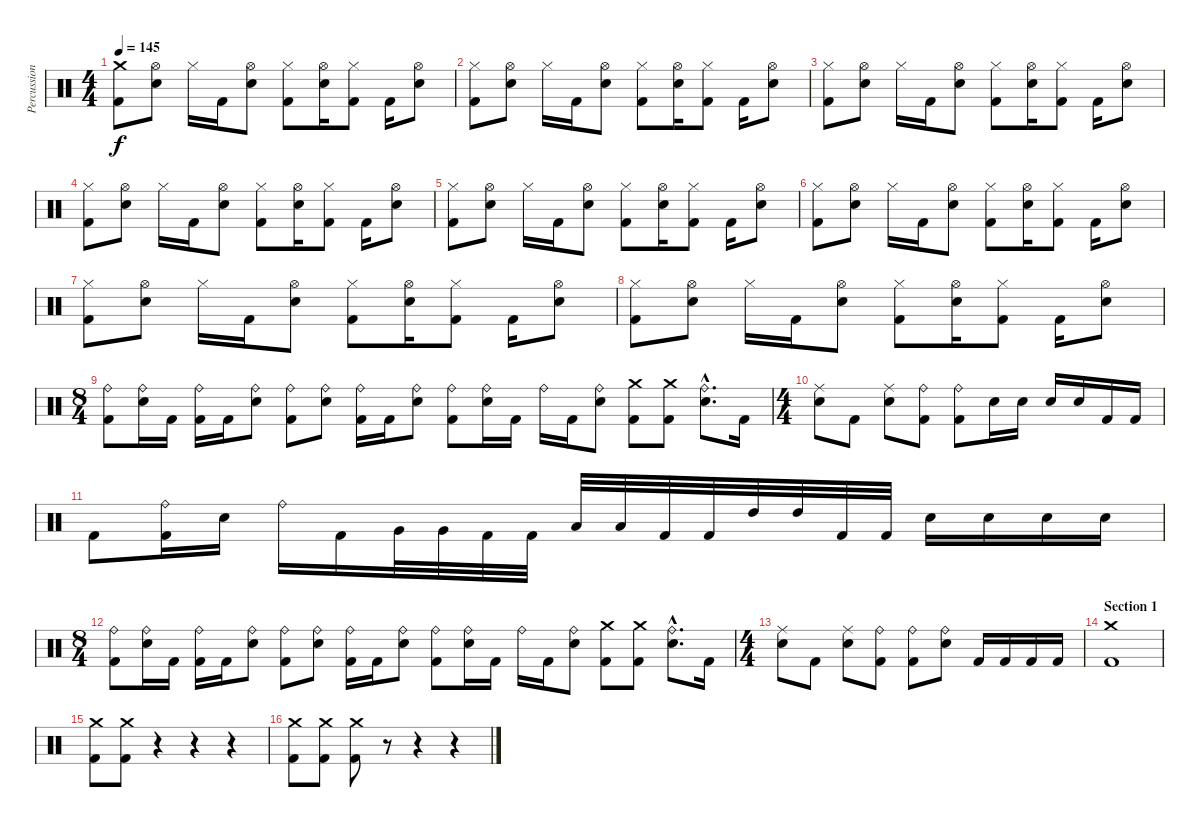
\track ("Percussions" "Percussion") {instrument percussion}
\staff {score}
\articulation defaults
\ts (4 4)
\tempo 145
\clef neutral
\ks c
("Crash medium (hit)" "Kick (hit) 2").8{dy f} ("Hi-Hat (open)" "Electric Snare (hit)").8 "Hi-Hat (closed)".16 "Kick (hit) 2".16 ("Hi-Hat (open)" "Electric Snare (hit)").8 ("Hi-Hat (closed)" "Kick (hit) 2").8 ("Hi-Hat (open)" "Electric Snare (hit)").16 ("Hi-Hat (closed)" "Kick (hit) 2").8 "Kick (hit) 2".16 ("Hi-Hat (open)" "Electric Snare (hit)").8 |
("Hi-Hat (closed)" "Kick (hit) 2").8 ("Hi-Hat (open)" "Electric Snare (hit)").8 "Hi-Hat (closed)".16 "Kick (hit) 2".16 ("Hi-Hat (open)" "Electric Snare (hit)").8 ("Hi-Hat (closed)" "Kick (hit) 2").8 ("Hi-Hat (open)" "Electric Snare (hit)").16 ("Hi-Hat (closed)" "Kick (hit) 2").8 "Kick (hit) 2".16 ("Hi-Hat (open)" "Electric Snare (hit)").8 |
("Hi-Hat (closed)" "Kick (hit) 2").8 ("Hi-Hat (open)" "Electric Snare (hit)").8 "Hi-Hat (closed)".16 "Kick (hit) 2".16 ("Hi-Hat (open)" "Electric Snare (hit)").8 ("Hi-Hat (closed)" "Kick (hit) 2").8 ("Hi-Hat (open)" "Electric Snare (hit)").16 ("Hi-Hat (closed)" "Kick (hit) 2").8 "Kick (hit) 2".16 ("Hi-Hat (open)" "Electric Snare (hit)").8 |
("Hi-Hat (closed)" "Kick (hit) 2").8 ("Hi-Hat (open)" "Electric Snare (hit)").8 "Hi-Hat (closed)".16 "Kick (hit) 2".16 ("Hi-Hat (open)" "Electric Snare (hit)").8 ("Hi-Hat (closed)" "Kick (hit) 2").8 ("Hi-Hat (open)" "Electric Snare (hit)").16 ("Hi-Hat (closed)" "Kick (hit) 2").8 "Kick (hit) 2".16 ("Hi-Hat (open)" "Electric Snare (hit)").8 |
("Hi-Hat (closed)" "Kick (hit) 2").8 ("Hi-Hat (open)" "Electric Snare (hit)").8 "Hi-Hat (closed)".16 "Kick (hit) 2".16 ("Hi-Hat (open)" "Electric Snare (hit)").8 ("Hi-Hat (closed)" "Kick (hit) 2").8 ("Hi-Hat (open)" "Electric Snare (hit)").16 ("Hi-Hat (closed)" "Kick (hit) 2").8 "Kick (hit) 2".16 ("Hi-Hat (open)" "Electric Snare (hit)").8 |
("Hi-Hat (closed)" "Kick (hit) 2").8 ("Hi-Hat (open)" "Electric Snare (hit)").8 "Hi-Hat (closed)".16 "Kick (hit) 2".16 ("Hi-Hat (open)" "Electric Snare (hit)").8 ("Hi-Hat (closed)" "Kick (hit) 2").8 ("Hi-Hat (open)" "Electric Snare (hit)").16 ("Hi-Hat (closed)" "Kick (hit) 2").8 "Kick (hit) 2".16 ("Hi-Hat (open)" "Electric Snare (hit)").8 |
("Hi-Hat (closed)" "Kick (hit) 2").8 ("Hi-Hat (open)" "Electric Snare (hit)").8 "Hi-Hat (closed)".16 "Kick (hit) 2".16 ("Hi-Hat (open)" "Electric Snare (hit)").8 ("Hi-Hat (closed)" "Kick (hit) 2").8 ("Hi-Hat (open)" "Electric Snare (hit)").16 ("Hi-Hat (closed)" "Kick (hit) 2").8 "Kick (hit) 2".16 ("Hi-Hat (open)" "Electric Snare (hit)").8 |
("Hi-Hat (closed)" "Kick (hit) 2").8 ("Hi-Hat (open)" "Electric Snare (hit)").8 "Hi-Hat (closed)".16 "Kick (hit) 2".16 ("Hi-Hat (open)" "Electric Snare (hit)").8 ("Hi-Hat (closed)" "Kick (hit) 2").8 ("Hi-Hat (open)" "Electric Snare (hit)").16 ("Hi-Hat (closed)" "Kick (hit) 2").8 "Kick (hit) 2".16 ("Hi-Hat (open)" "Electric Snare (hit)").8 |
\ts (8 4)
("Ride (bell)" "Kick (hit) 2").8 ("Ride (bell)" "Electric Snare (hit)").16 "Kick (hit) 2".16 ("Ride (bell)" "Kick (hit) 2").16 "Kick (hit) 2".16 ("Ride (bell)" "Electric Snare (hit)").8 ("Ride (bell)" "Kick (hit) 2").8 ("Ride (bell)" "Electric Snare (hit)").8 ("Ride (bell)" "Kick (hit) 2").16 "Kick (hit) 2".16 ("Ride (bell)" "Electric Snare (hit)").8 ("Ride (bell)" "Kick (hit) 2").8 ("Ride (bell)" "Electric Snare (hit)").16 "Kick (hit) 2".16 "Ride (bell)".16 "Kick (hit) 2".16 ("Ride (bell)" "Electric Snare (hit)").8 ("Crash medium (hit)" "Kick (hit) 2").8 ("Crash medium (hit)" "Kick (hit) 2").8 ("Ride (bell)"{hac} "Electric Snare (hit)"{hac}).8{d} "Kick (hit) 2".16 |
\ts (4 4)
("Ride (middle)" "Electric Snare (hit)").8 "Kick (hit) 2".8 ("Ride (middle)" "Electric Snare (hit)").8 ("Ride (bell)" "Kick (hit) 2").8 ("Ride (bell)" "Kick (hit) 2").8 "Electric Snare (hit)".16 "Electric Snare (hit)".16 "Electric Snare (hit)".16 "Electric Snare (hit)".16 "Kick (hit) 2".16 "Kick (hit) 2".16 |
"Kick (hit) 2".8 ("Ride (bell)" "Kick (hit) 2").16 "Electric Snare (hit)".16 "Ride (bell)".16 "Kick (hit) 2".16 "Very Low Tom (hit)".32 "Very Low Tom (hit)".32 "Kick (hit) 2".32 "Kick (hit) 2".32 "Low Tom (hit)".32 "Low Tom (hit)".32 "Kick (hit) 2".32 "Kick (hit) 2".32 "High Tom (hit)".32 "High Tom (hit)".32 "Kick (hit) 2".32 "Kick (hit) 2".32 "Electric Snare (hit)".16 "Electric Snare (hit)".16 "Electric Snare (hit)".16 "Electric Snare (hit)".16 |
\ts (8 4)
("Ride (bell)" "Kick (hit) 2").8 ("Ride (bell)" "Electric Snare (hit)").16 "Kick (hit) 2".16 ("Ride (bell)" "Kick (hit) 2").16 "Kick (hit) 2".16 ("Ride (bell)" "Electric Snare (hit)").8 ("Ride (bell)" "Kick (hit) 2").8 ("Ride (bell)" "Electric Snare (hit)").8 ("Ride (bell)" "Kick (hit) 2").16 "Kick (hit) 2".16 ("Ride (bell)" "Electric Snare (hit)").8 ("Ride (bell)" "Kick (hit) 2").8 ("Ride (bell)" "Electric Snare (hit)").16 "Kick (hit) 2".16 "Ride (bell)".16 "Kick (hit) 2".16 ("Ride (bell)" "Electric Snare (hit)").8 ("Crash medium (hit)" "Kick (hit) 2").8 ("Crash medium (hit)" "Kick (hit) 2").8 ("Ride (bell)"{hac} "Electric Snare (hit)"{hac}).8{d} "Kick (hit) 2".16 |
\ts (4 4)
("Ride (middle)" "Electric Snare (hit)").8 "Kick (hit) 2".8 ("Ride (middle)" "Electric Snare (hit)").8 ("Ride (bell)" "Kick (hit) 2").8 ("Ride (bell)" "Kick (hit) 2").8 ("Ride (bell)" "Electric Snare (hit)").8 "Kick (hit) 2".16 "Kick (hit) 2".16 "Kick (hit) 2".16 "Kick (hit) 2".16 |
\section ("" "Section 1")
("Crash medium (hit)" "Kick (hit) 2").1 |
("Crash medium (hit)" "Kick (hit) 2").8 ("Crash medium (hit)" "Kick (hit) 2").8 r.4 r.4 r.4 |
("Crash medium (hit)" "Kick (hit) 2").8 ("Crash medium (hit)" "Kick (hit) 2").8 ("Crash medium (hit)" "Kick (hit) 2").8 r.8 r.4 r.4
